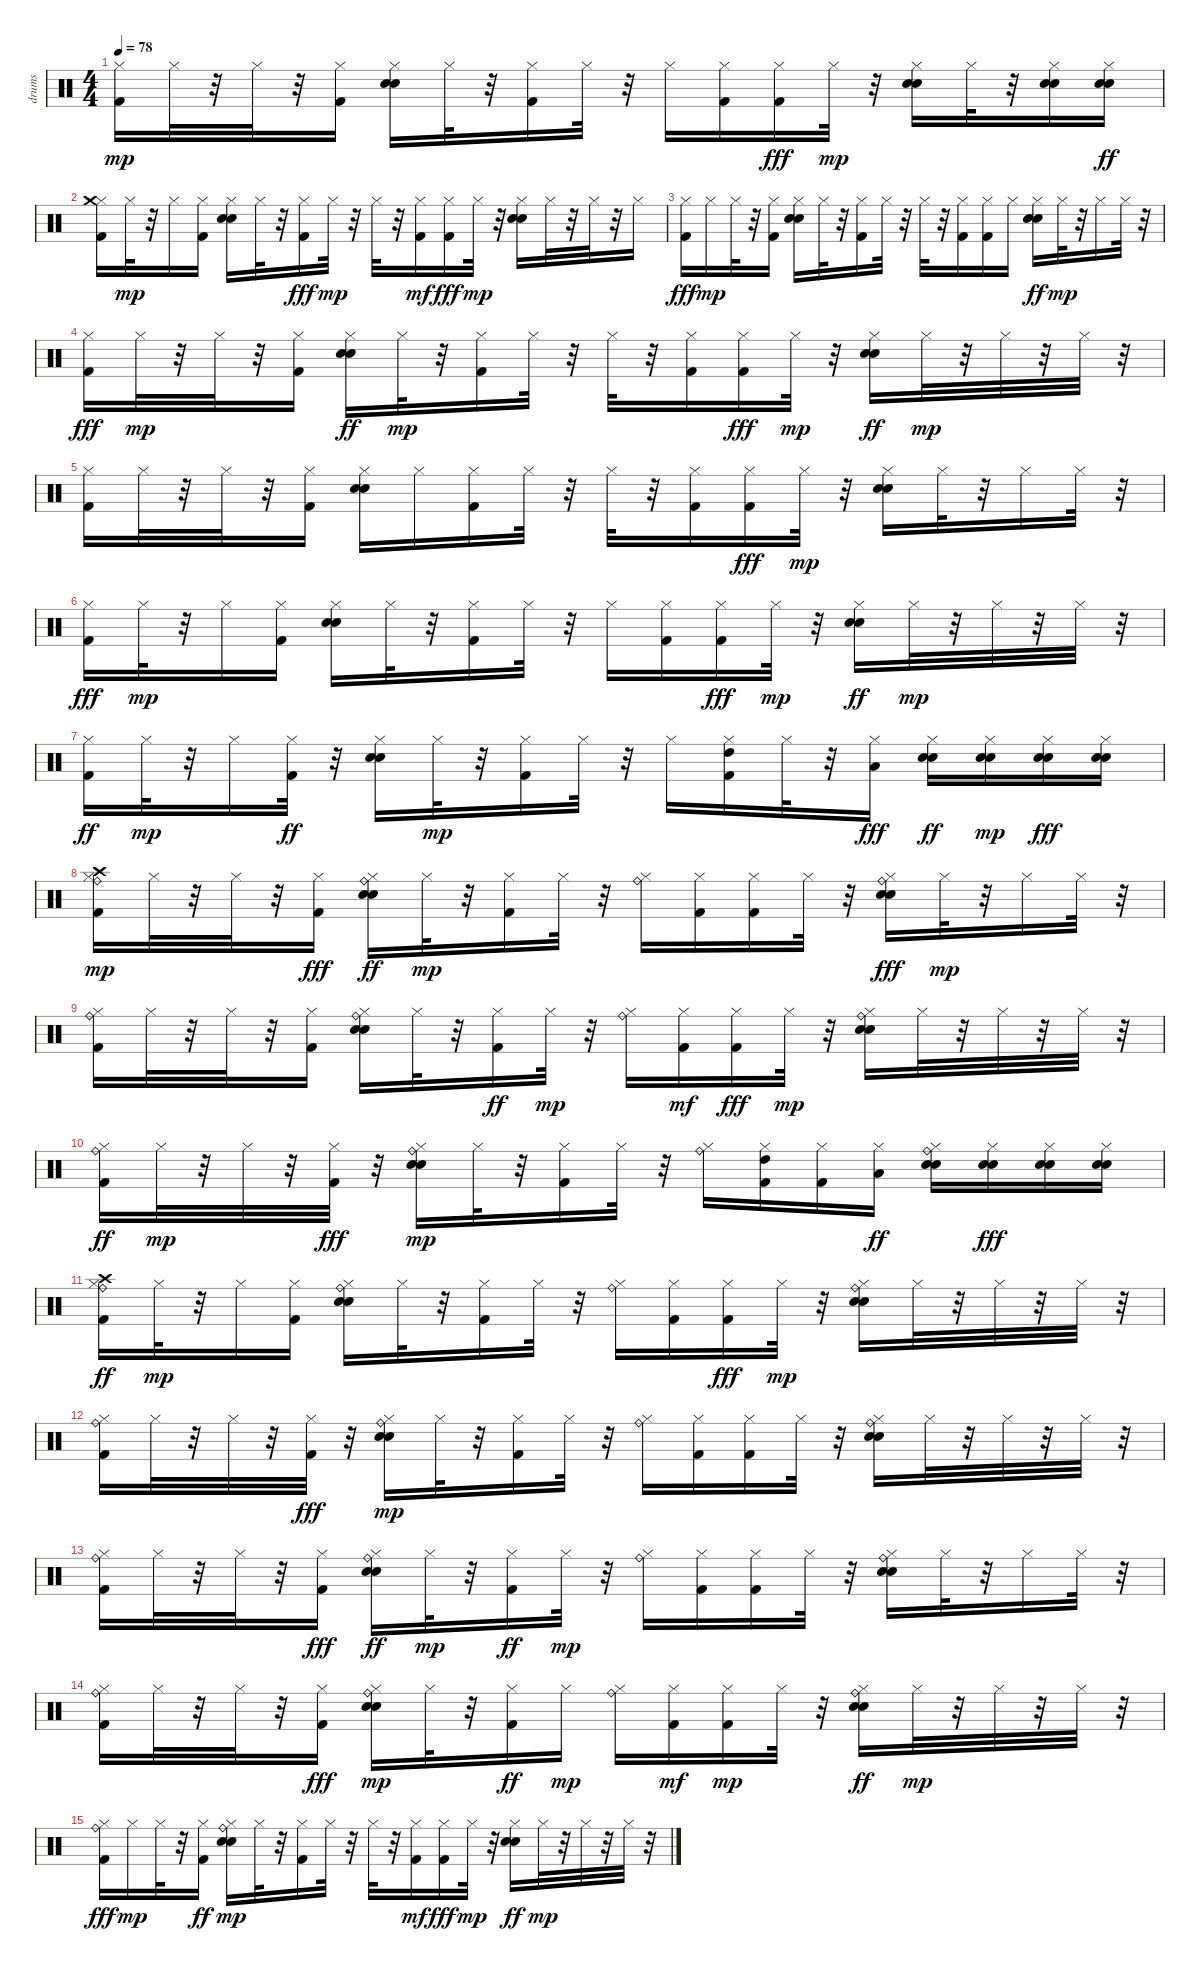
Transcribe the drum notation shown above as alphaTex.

\track ("drums" "drums") {instrument percussion}
\staff {score}
\articulation defaults
\ts (4 4)
\tempo 78
\clef neutral
\ks c
("Kick (hit) 2" "Hi-Hat (closed)").16{dy mp} "Hi-Hat (closed)".32 r.32 "Hi-Hat (closed)".32 r.32 ("Kick (hit) 2" "Hi-Hat (closed)").16 ("Snare (hit) 2" "Hi-Hat (closed)" "Electric Snare (hit)").16 "Hi-Hat (closed)".32 r.32 ("Kick (hit) 2" "Hi-Hat (closed)").16 "Hi-Hat (closed)".32 r.32 "Hi-Hat (closed)".16 ("Kick (hit) 2" "Hi-Hat (closed)").16 ("Hi-Hat (closed)" "Kick (hit) 2").16{dy fff} "Hi-Hat (closed)".32{dy mp} r.32 ("Snare (hit) 2" "Electric Snare (hit)" "Hi-Hat (closed)").16 "Hi-Hat (closed)".32 r.32 ("Electric Snare (hit)" "Snare (hit) 2" "Hi-Hat (closed)").16 ("Hi-Hat (closed)" "Snare (hit) 2" "Electric Snare (hit)").16{dy ff} |
("Hi-Hat (closed)" "Crash medium (hit)" "Kick (hit) 2").16 "Hi-Hat (closed)".32{dy mp} r.32 "Hi-Hat (closed)".16 ("Kick (hit) 2" "Hi-Hat (closed)").16 ("Electric Snare (hit)" "Snare (hit) 2" "Hi-Hat (closed)").16 "Hi-Hat (closed)".32 r.32 ("Hi-Hat (closed)" "Kick (hit) 2").16{dy fff} "Hi-Hat (closed)".32{dy mp} r.32 "Hi-Hat (closed)".32 r.32 ("Hi-Hat (closed)" "Kick (hit) 2").16{dy mf} ("Hi-Hat (closed)" "Kick (hit) 2").16{dy fff} "Hi-Hat (closed)".32{dy mp} r.32 ("Electric Snare (hit)" "Snare (hit) 2" "Hi-Hat (closed)").16 "Hi-Hat (closed)".32 r.32 "Hi-Hat (closed)".32 r.32 "Hi-Hat (closed)".16 |
("Hi-Hat (closed)" "Kick (hit) 2").16{dy fff} "Hi-Hat (closed)".16{dy mp} "Hi-Hat (closed)".32 r.32 ("Kick (hit) 2" "Hi-Hat (closed)").16 ("Electric Snare (hit)" "Snare (hit) 2" "Hi-Hat (closed)").16 "Hi-Hat (closed)".32 r.32 ("Kick (hit) 2" "Hi-Hat (closed)").16 "Hi-Hat (closed)".32 r.32 "Hi-Hat (closed)".32 r.32 ("Kick (hit) 2" "Hi-Hat (closed)").16 ("Kick (hit) 2" "Hi-Hat (closed)").16 "Hi-Hat (closed)".16 ("Hi-Hat (closed)" "Snare (hit) 2" "Electric Snare (hit)").16{dy ff} "Hi-Hat (closed)".32{dy mp} r.32 "Hi-Hat (closed)".16 "Hi-Hat (closed)".32 r.32 |
("Hi-Hat (closed)" "Kick (hit) 2").16{dy fff} "Hi-Hat (closed)".32{dy mp} r.32 "Hi-Hat (closed)".32 r.32 ("Kick (hit) 2" "Hi-Hat (closed)").16 ("Hi-Hat (closed)" "Snare (hit) 2" "Electric Snare (hit)").16{dy ff} "Hi-Hat (closed)".32{dy mp} r.32 ("Kick (hit) 2" "Hi-Hat (closed)").16 "Hi-Hat (closed)".32 r.32 "Hi-Hat (closed)".32 r.32 ("Kick (hit) 2" "Hi-Hat (closed)").16 ("Hi-Hat (closed)" "Kick (hit) 2").16{dy fff} "Hi-Hat (closed)".32{dy mp} r.32 ("Hi-Hat (closed)" "Snare (hit) 2" "Electric Snare (hit)").16{dy ff} "Hi-Hat (closed)".32{dy mp} r.32 "Hi-Hat (closed)".32 r.32 "Hi-Hat (closed)".32 r.32 |
("Kick (hit) 2" "Hi-Hat (closed)").16 "Hi-Hat (closed)".32 r.32 "Hi-Hat (closed)".32 r.32 ("Kick (hit) 2" "Hi-Hat (closed)").16 ("Electric Snare (hit)" "Snare (hit) 2" "Hi-Hat (closed)").16 "Hi-Hat (closed)".16 ("Kick (hit) 2" "Hi-Hat (closed)").16 "Hi-Hat (closed)".32 r.32 "Hi-Hat (closed)".32 r.32 ("Kick (hit) 2" "Hi-Hat (closed)").16 ("Hi-Hat (closed)" "Kick (hit) 2").16{dy fff} "Hi-Hat (closed)".32{dy mp} r.32 ("Electric Snare (hit)" "Snare (hit) 2" "Hi-Hat (closed)").16 "Hi-Hat (closed)".32 r.32 "Hi-Hat (closed)".16 "Hi-Hat (closed)".32 r.32 |
("Hi-Hat (closed)" "Kick (hit) 2").16{dy fff} "Hi-Hat (closed)".32{dy mp} r.32 "Hi-Hat (closed)".16 ("Kick (hit) 2" "Hi-Hat (closed)").16 ("Snare (hit) 2" "Electric Snare (hit)" "Hi-Hat (closed)").16 "Hi-Hat (closed)".32 r.32 ("Kick (hit) 2" "Hi-Hat (closed)").16 "Hi-Hat (closed)".32 r.32 "Hi-Hat (closed)".16 ("Kick (hit) 2" "Hi-Hat (closed)").16 ("Hi-Hat (closed)" "Kick (hit) 2").16{dy fff} "Hi-Hat (closed)".32{dy mp} r.32 ("Hi-Hat (closed)" "Snare (hit) 2" "Electric Snare (hit)").16{dy ff} "Hi-Hat (closed)".32{dy mp} r.32 "Hi-Hat (closed)".32 r.32 "Hi-Hat (closed)".32 r.32 |
("Hi-Hat (closed)" "Kick (hit) 2").16{dy ff} "Hi-Hat (closed)".32{dy mp} r.32 "Hi-Hat (closed)".16 ("Hi-Hat (closed)" "Kick (hit) 2").32{dy ff} r.32 ("Hi-Hat (closed)" "Electric Snare (hit)" "Snare (hit) 2").16 "Hi-Hat (closed)".32{dy mp} r.32 ("Kick (hit) 2" "Hi-Hat (closed)").16 "Hi-Hat (closed)".32 r.32 "Hi-Hat (closed)".16 ("Kick (hit) 2" "High Tom (hit)" "Hi-Hat (closed)").16 "Hi-Hat (closed)".32 r.32 ("Hi-Hat (closed)" "Low Tom (hit)").16{dy fff} ("Hi-Hat (closed)" "Electric Snare (hit)" "Snare (hit) 2").16{dy ff} ("Snare (hit) 2" "Electric Snare (hit)" "Hi-Hat (closed)").16{dy mp volume 14} ("Hi-Hat (closed)" "Electric Snare (hit)" "Snare (hit) 2").16{dy fff} ("Hi-Hat (closed)" "Snare (hit) 2" "Electric Snare (hit)").16 |
("Kick (hit) 2" "Crash high (hit)" "Ride (bell)" "Hi-Hat (closed)").16{dy mp} "Hi-Hat (closed)".32 r.32 "Hi-Hat (closed)".32 r.32 ("Hi-Hat (closed)" "Kick (hit) 2").16{dy fff} ("Hi-Hat (closed)" "Ride (bell)" "Snare (hit) 2" "Electric Snare (hit)").16{dy ff} "Hi-Hat (closed)".32{dy mp} r.32 ("Kick (hit) 2" "Hi-Hat (closed)").16 "Hi-Hat (closed)".32 r.32 ("Hi-Hat (closed)" "Ride (bell)").16 ("Kick (hit) 2" "Hi-Hat (closed)").16{volume 14} ("Kick (hit) 2" "Hi-Hat (closed)").16 "Hi-Hat (closed)".32 r.32 ("Hi-Hat (closed)" "Ride (bell)" "Snare (hit) 2" "Electric Snare (hit)").16{dy fff} "Hi-Hat (closed)".32{dy mp} r.32 "Hi-Hat (closed)".16 "Hi-Hat (closed)".32{volume 14} r.32 |
("Kick (hit) 2" "Ride (bell)" "Hi-Hat (closed)").16 "Hi-Hat (closed)".32 r.32 "Hi-Hat (closed)".32 r.32 ("Kick (hit) 2" "Hi-Hat (closed)").16 ("Electric Snare (hit)" "Snare (hit) 2" "Ride (bell)" "Hi-Hat (closed)").16 "Hi-Hat (closed)".32 r.32 ("Hi-Hat (closed)" "Kick (hit) 2").16{dy ff volume 14} "Hi-Hat (closed)".32{dy mp} r.32 ("Hi-Hat (closed)" "Ride (bell)").16 ("Hi-Hat (closed)" "Kick (hit) 2").16{dy mf} ("Hi-Hat (closed)" "Kick (hit) 2").16{dy fff} "Hi-Hat (closed)".32{dy mp volume 13} r.32 ("Electric Snare (hit)" "Snare (hit) 2" "Ride (bell)" "Hi-Hat (closed)").16 "Hi-Hat (closed)".32 r.32 "Hi-Hat (closed)".32 r.32 "Hi-Hat (closed)".32 r.32 |
("Hi-Hat (closed)" "Ride (bell)" "Kick (hit) 2").16{dy ff} "Hi-Hat (closed)".32{dy mp} r.32 "Hi-Hat (closed)".32 r.32 ("Hi-Hat (closed)" "Kick (hit) 2").32{dy fff} r.32 ("Snare (hit) 2" "Electric Snare (hit)" "Ride (bell)" "Hi-Hat (closed)").16{dy mp volume 13} "Hi-Hat (closed)".32 r.32 ("Kick (hit) 2" "Hi-Hat (closed)").16 "Hi-Hat (closed)".32 r.32 ("Hi-Hat (closed)" "Ride (bell)").16 ("Kick (hit) 2" "High Tom (hit)" "Hi-Hat (closed)").16{volume 12} ("Kick (hit) 2" "Hi-Hat (closed)").16 ("Hi-Hat (closed)" "Low Tom (hit)").16{dy ff volume 12} ("Hi-Hat (closed)" "Snare (hit) 2" "Electric Snare (hit)" "Ride (bell)").16 ("Hi-Hat (closed)" "Electric Snare (hit)" "Snare (hit) 2").16{dy fff} ("Hi-Hat (closed)" "Electric Snare (hit)" "Snare (hit) 2").16{volume 12} ("Hi-Hat (closed)" "Electric Snare (hit)" "Snare (hit) 2").16 |
("Hi-Hat (closed)" "Crash high (hit)" "Ride (bell)" "Kick (hit) 2").16{dy ff} "Hi-Hat (closed)".32{dy mp volume 12} r.32 "Hi-Hat (closed)".16 ("Kick (hit) 2" "Hi-Hat (closed)").16{volume 12} ("Electric Snare (hit)" "Snare (hit) 2" "Ride (bell)" "Hi-Hat (closed)").16 "Hi-Hat (closed)".32 r.32 ("Kick (hit) 2" "Hi-Hat (closed)").16{volume 11} "Hi-Hat (closed)".32 r.32 ("Ride (bell)" "Hi-Hat (closed)").16 ("Kick (hit) 2" "Hi-Hat (closed)").16 ("Hi-Hat (closed)" "Kick (hit) 2").16{dy fff} "Hi-Hat (closed)".32{dy mp} r.32 ("Electric Snare (hit)" "Snare (hit) 2" "Hi-Hat (closed)" "Ride (bell)").16{volume 10} "Hi-Hat (closed)".32 r.32 "Hi-Hat (closed)".32 r.32 "Hi-Hat (closed)".32 r.32 |
("Kick (hit) 2" "Hi-Hat (closed)" "Ride (bell)").16{volume 10} "Hi-Hat (closed)".32 r.32 "Hi-Hat (closed)".32{volume 9} r.32 ("Hi-Hat (closed)" "Kick (hit) 2").32{dy fff} r.32 ("Electric Snare (hit)" "Snare (hit) 2" "Ride (bell)" "Hi-Hat (closed)").16{dy mp} "Hi-Hat (closed)".32 r.32 ("Kick (hit) 2" "Hi-Hat (closed)").16 "Hi-Hat (closed)".32{volume 9} r.32 ("Hi-Hat (closed)" "Ride (bell)").16{volume 8} ("Hi-Hat (closed)" "Kick (hit) 2").16 ("Kick (hit) 2" "Hi-Hat (closed)").16 "Hi-Hat (closed)".32{volume 8} r.32 ("Electric Snare (hit)" "Snare (hit) 2" "Ride (bell)" "Hi-Hat (closed)").16 "Hi-Hat (closed)".32 r.32 "Hi-Hat (closed)".32{volume 8} r.32 "Hi-Hat (closed)".32 r.32 |
("Kick (hit) 2" "Ride (bell)" "Hi-Hat (closed)").16 "Hi-Hat (closed)".32{volume 7} r.32 "Hi-Hat (closed)".32 r.32 ("Hi-Hat (closed)" "Kick (hit) 2").16{dy fff} ("Hi-Hat (closed)" "Ride (bell)" "Electric Snare (hit)" "Snare (hit) 2").16{dy ff volume 6} "Hi-Hat (closed)".32{dy mp} r.32 ("Hi-Hat (closed)" "Kick (hit) 2").16{dy ff volume 6} "Hi-Hat (closed)".32{dy mp} r.32 ("Hi-Hat (closed)" "Ride (bell)").16 ("Kick (hit) 2" "Hi-Hat (closed)").16{volume 6} ("Kick (hit) 2" "Hi-Hat (closed)").16 "Hi-Hat (closed)".32 r.32 ("Snare (hit) 2" "Electric Snare (hit)" "Ride (bell)" "Hi-Hat (closed)").16{volume 6} "Hi-Hat (closed)".32 r.32 "Hi-Hat (closed)".16{volume 5} "Hi-Hat (closed)".32{volume 5} r.32 |
("Kick (hit) 2" "Ride (bell)" "Hi-Hat (closed)").16 "Hi-Hat (closed)".32 r.32 "Hi-Hat (closed)".32{volume 4} r.32 ("Hi-Hat (closed)" "Kick (hit) 2").16{dy fff} ("Snare (hit) 2" "Electric Snare (hit)" "Hi-Hat (closed)" "Ride (bell)").16{dy mp} "Hi-Hat (closed)".32{volume 4} r.32 ("Hi-Hat (closed)" "Kick (hit) 2").16{dy ff} "Hi-Hat (closed)".16{dy mp volume 4} ("Ride (bell)" "Hi-Hat (closed)").16 ("Hi-Hat (closed)" "Kick (hit) 2").16{dy mf} ("Kick (hit) 2" "Hi-Hat (closed)").16{dy mp volume 3} "Hi-Hat (closed)".32 r.32 ("Hi-Hat (closed)" "Ride (bell)" "Electric Snare (hit)" "Snare (hit) 2").16{dy ff volume 3} "Hi-Hat (closed)".32{dy mp} r.32 "Hi-Hat (closed)".32 r.32 "Hi-Hat (closed)".32{volume 2} r.32 |
("Hi-Hat (closed)" "Kick (hit) 2" "Ride (bell)").16{dy fff} "Hi-Hat (closed)".16{dy mp volume 2} "Hi-Hat (closed)".32{volume 2} r.32 ("Hi-Hat (closed)" "Kick (hit) 2").16{dy ff} ("Snare (hit) 2" "Electric Snare (hit)" "Ride (bell)" "Hi-Hat (closed)").16{dy mp} "Hi-Hat (closed)".32{volume 1} r.32 ("Kick (hit) 2" "Hi-Hat (closed)").16 "Hi-Hat (closed)".32{volume 1} r.32 "Hi-Hat (closed)".32{volume 1} r.32 ("Hi-Hat (closed)" "Kick (hit) 2").16{dy mf} ("Hi-Hat (closed)" "Kick (hit) 2").16{dy fff volume 0} "Hi-Hat (closed)".32{dy mp volume 0} r.32 ("Hi-Hat (closed)" "Snare (hit) 2" "Electric Snare (hit)").16{dy ff} "Hi-Hat (closed)".32{dy mp volume 0} r.32 "Hi-Hat (closed)".32 r.32 "Hi-Hat (closed)".32 r.32
